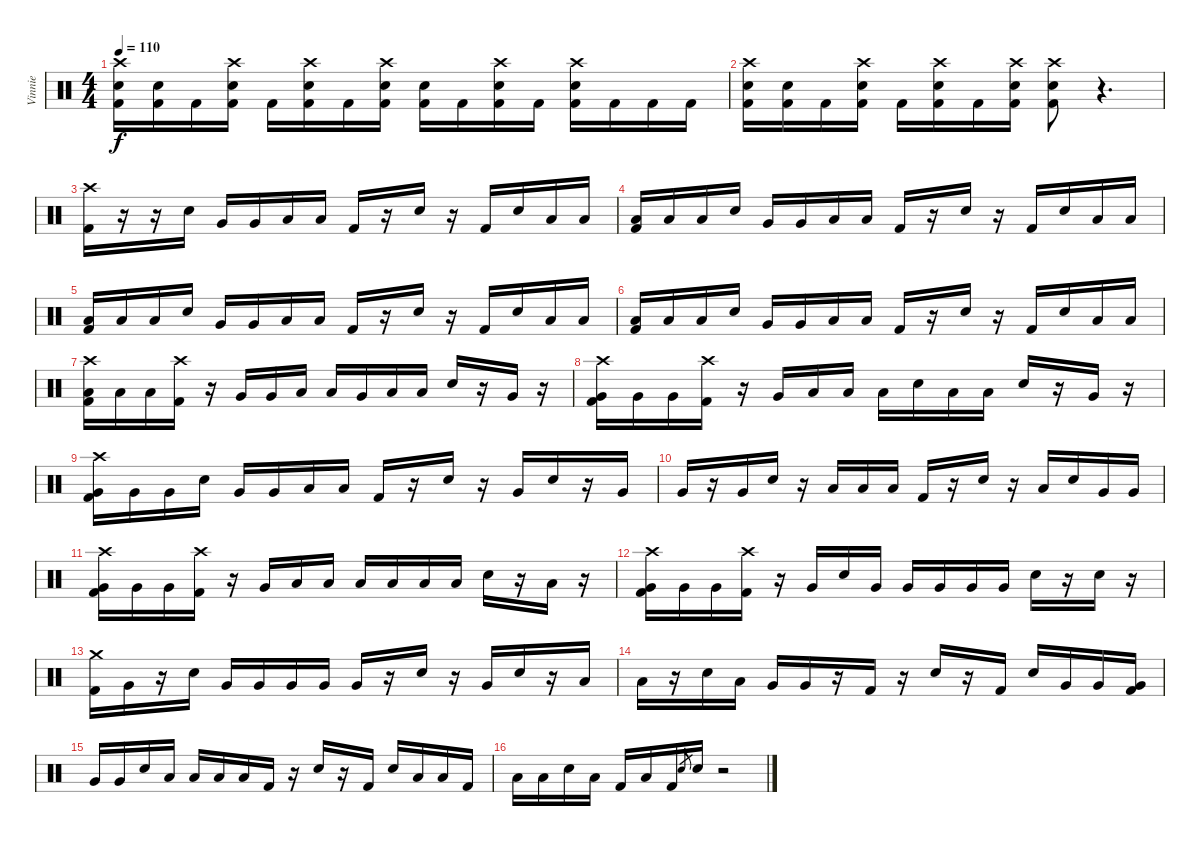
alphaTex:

\track ("Vinnie" "Vinnie") {instrument percussion}
\staff {score}
\articulation defaults
\ts (4 4)
\tempo 110
\clef neutral
\ks c
("Crash high (hit)" "Electric Snare (hit)" "Kick (hit) 2").16{dy f} ("Electric Snare (hit)" "Kick (hit) 2").16 "Kick (hit) 2".16 ("Crash high (hit)" "Electric Snare (hit)" "Kick (hit) 2").16 "Kick (hit) 2".16 ("Crash high (hit)" "Electric Snare (hit)" "Kick (hit) 2").16 "Kick (hit) 2".16 ("Crash high (hit)" "Electric Snare (hit)" "Kick (hit) 2").16 ("Electric Snare (hit)" "Kick (hit) 2").16 "Kick (hit) 2".16 ("Crash high (hit)" "Electric Snare (hit)" "Kick (hit) 2").16 "Kick (hit) 2".16 ("Crash high (hit)" "Electric Snare (hit)" "Kick (hit) 2").16 "Kick (hit) 2".16 "Kick (hit) 2".16 "Kick (hit) 2".16 |
("Crash high (hit)" "Electric Snare (hit)" "Kick (hit) 2").16 ("Electric Snare (hit)" "Kick (hit) 2").16 "Kick (hit) 2".16 ("Crash high (hit)" "Electric Snare (hit)" "Kick (hit) 2").16 "Kick (hit) 2".16 ("Crash high (hit)" "Electric Snare (hit)" "Kick (hit) 2").16 "Kick (hit) 2".16 ("Crash high (hit)" "Electric Snare (hit)" "Kick (hit) 2").16 ("Crash high (hit)" "Electric Snare (hit)" "Kick (hit) 2").8 r.4{d} |
("Crash high (hit)" "Kick (hit) 2").16 r.16 r.16 "Electric Snare (hit)".16 "Very Low Tom (hit)".16 "Very Low Tom (hit)".16 "Low Floor Tom (hit)".16 "Low Floor Tom (hit)".16 "Kick (hit) 2".16 r.16 "Electric Snare (hit)".16 r.16 "Kick (hit) 2".16 "Electric Snare (hit)".16 "Low Floor Tom (hit)".16 "Low Floor Tom (hit)".16 |
("Low Floor Tom (hit)" "Kick (hit) 2").16 "Low Floor Tom (hit)".16 "Low Floor Tom (hit)".16 "Electric Snare (hit)".16 "Very Low Tom (hit)".16 "Very Low Tom (hit)".16 "Low Floor Tom (hit)".16 "Low Floor Tom (hit)".16 "Kick (hit) 2".16 r.16 "Electric Snare (hit)".16 r.16 "Kick (hit) 2".16 "Electric Snare (hit)".16 "Low Floor Tom (hit)".16 "Low Floor Tom (hit)".16 |
("Low Floor Tom (hit)" "Kick (hit) 2").16 "Low Floor Tom (hit)".16 "Low Floor Tom (hit)".16 "Electric Snare (hit)".16 "Very Low Tom (hit)".16 "Very Low Tom (hit)".16 "Low Floor Tom (hit)".16 "Low Floor Tom (hit)".16 "Kick (hit) 2".16 r.16 "Electric Snare (hit)".16 r.16 "Kick (hit) 2".16 "Electric Snare (hit)".16 "Low Floor Tom (hit)".16 "Low Floor Tom (hit)".16 |
("Low Floor Tom (hit)" "Kick (hit) 2").16 "Low Floor Tom (hit)".16 "Low Floor Tom (hit)".16 "Electric Snare (hit)".16 "Very Low Tom (hit)".16 "Very Low Tom (hit)".16 "Low Floor Tom (hit)".16 "Low Floor Tom (hit)".16 "Kick (hit) 2".16 r.16 "Electric Snare (hit)".16 r.16 "Kick (hit) 2".16 "Electric Snare (hit)".16 "Low Floor Tom (hit)".16 "Low Floor Tom (hit)".16 |
("Crash high (hit)" "Low Floor Tom (hit)" "Kick (hit) 2").16 "Low Floor Tom (hit)".16 "Low Floor Tom (hit)".16 ("Crash high (hit)" "Kick (hit) 2").16 r.16 "Very Low Tom (hit)".16 "Very Low Tom (hit)".16 "Low Floor Tom (hit)".16 "Low Floor Tom (hit)".16 "Very Low Tom (hit)".16 "Low Floor Tom (hit)".16 "Low Floor Tom (hit)".16 "Electric Snare (hit)".16 r.16 "Very Low Tom (hit)".16 r.16 |
("Crash high (hit)" "Very Low Tom (hit)" "Kick (hit) 2").16 "Very Low Tom (hit)".16 "Very Low Tom (hit)".16 ("Crash high (hit)" "Kick (hit) 2").16 r.16 "Very Low Tom (hit)".16 "Low Floor Tom (hit)".16 "Low Floor Tom (hit)".16 "Low Floor Tom (hit)".16 "Electric Snare (hit)".16 "Low Floor Tom (hit)".16 "Low Floor Tom (hit)".16 "Electric Snare (hit)".16 r.16 "Very Low Tom (hit)".16 r.16 |
("Crash high (hit)" "Very Low Tom (hit)" "Kick (hit) 2").16 "Very Low Tom (hit)".16 "Very Low Tom (hit)".16 "Electric Snare (hit)".16 "Very Low Tom (hit)".16 "Very Low Tom (hit)".16 "Low Floor Tom (hit)".16 "Low Floor Tom (hit)".16 "Kick (hit) 2".16 r.16 "Electric Snare (hit)".16 r.16 "Very Low Tom (hit)".16 "Electric Snare (hit)".16 r.16 "Very Low Tom (hit)".16 |
"Very Low Tom (hit)".16 r.16 "Very Low Tom (hit)".16 "Electric Snare (hit)".16 r.16 "Low Floor Tom (hit)".16 "Low Floor Tom (hit)".16 "Low Floor Tom (hit)".16 "Kick (hit) 2".16 r.16 "Electric Snare (hit)".16 r.16 "Low Floor Tom (hit)".16 "Electric Snare (hit)".16 "Very Low Tom (hit)".16 "Very Low Tom (hit)".16 |
("Crash high (hit)" "Very Low Tom (hit)" "Kick (hit) 2").16 "Very Low Tom (hit)".16 "Very Low Tom (hit)".16 ("Crash high (hit)" "Kick (hit) 2").16 r.16 "Very Low Tom (hit)".16 "Low Floor Tom (hit)".16 "Low Floor Tom (hit)".16 "Low Floor Tom (hit)".16 "Low Floor Tom (hit)".16 "Low Floor Tom (hit)".16 "Low Floor Tom (hit)".16 "Electric Snare (hit)".16 r.16 "Low Floor Tom (hit)".16 r.16 |
("Crash high (hit)" "Very Low Tom (hit)" "Kick (hit) 2").16 "Very Low Tom (hit)".16 "Very Low Tom (hit)".16 ("Crash high (hit)" "Kick (hit) 2").16 r.16 "Very Low Tom (hit)".16 "Electric Snare (hit)".16 "Very Low Tom (hit)".16 "Very Low Tom (hit)".16 "Very Low Tom (hit)".16 "Very Low Tom (hit)".16 "Very Low Tom (hit)".16 "Electric Snare (hit)".16 r.16 "Electric Snare (hit)".16 r.16 |
("Crash medium (hit)" "Kick (hit) 2").16 "Very Low Tom (hit)".16 r.16 "Electric Snare (hit)".16 "Very Low Tom (hit)".16 "Very Low Tom (hit)".16 "Very Low Tom (hit)".16 "Very Low Tom (hit)".16 "Very Low Tom (hit)".16 r.16 "Electric Snare (hit)".16 r.16 "Very Low Tom (hit)".16 "Electric Snare (hit)".16 r.16 "Low Floor Tom (hit)".16 |
"Low Floor Tom (hit)".16 r.16 "Electric Snare (hit)".16 "Low Floor Tom (hit)".16 "Very Low Tom (hit)".16 "Very Low Tom (hit)".16 r.16 "Kick (hit) 2".16 r.16 "Electric Snare (hit)".16 r.16 "Kick (hit) 2".16 "Electric Snare (hit)".16 "Very Low Tom (hit)".16 "Very Low Tom (hit)".16 ("Very Low Tom (hit)" "Kick (hit) 2").16 |
"Very Low Tom (hit)".16 "Very Low Tom (hit)".16 "Electric Snare (hit)".16 "Low Floor Tom (hit)".16 "Low Floor Tom (hit)".16 "Low Floor Tom (hit)".16 "Low Floor Tom (hit)".16 "Kick (hit) 2".16 r.16 "Electric Snare (hit)".16 r.16 "Kick (hit) 2".16 "Electric Snare (hit)".16 "Low Floor Tom (hit)".16 "Low Floor Tom (hit)".16 "Kick (hit) 2".16 |
"Low Floor Tom (hit)".16 "Low Floor Tom (hit)".16 "Electric Snare (hit)".16 "Low Floor Tom (hit)".16 "Kick (hit) 2".16 "Low Floor Tom (hit)".16 "Kick (hit) 2".16 "Electric Snare (hit)".8{gr} "Electric Snare (hit)".16 r.2
